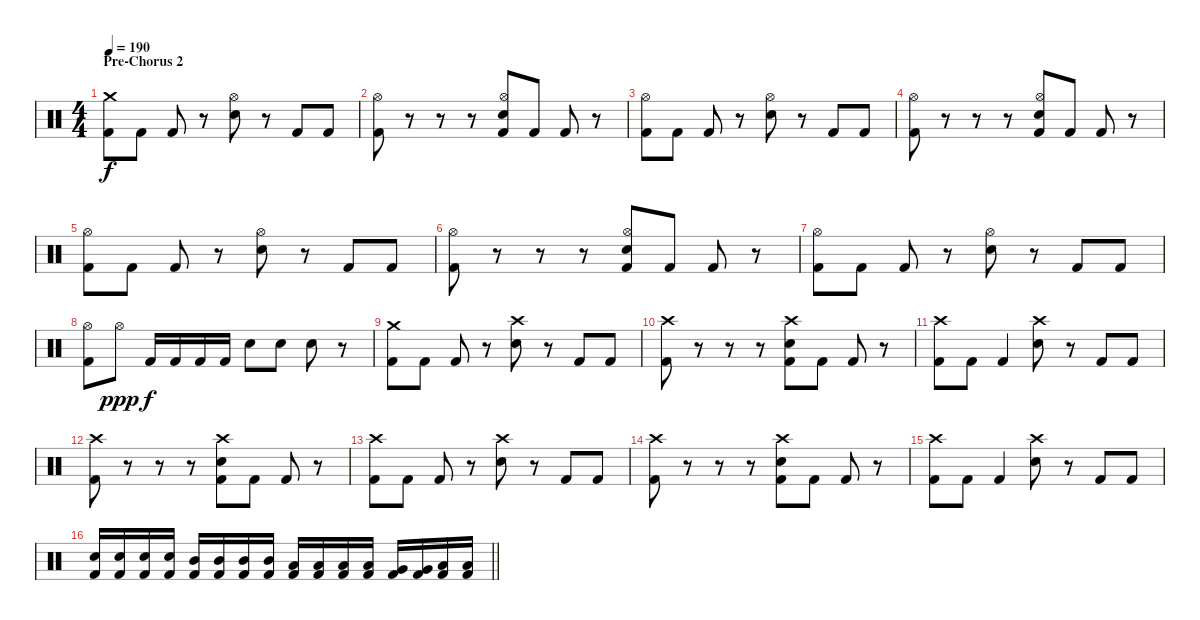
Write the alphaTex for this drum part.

\track "" {instrument percussion}
\staff {score}
\articulation defaults
\ts (4 4)
\section ("" "Pre-Chorus 2")
\tempo 190
\clef neutral
\ks c
("Crash medium (hit)" "Kick (hit) 2").8{dy f} "Kick (hit) 2".8 "Kick (hit) 2".8 r.8 ("Hi-Hat (open)" "Electric Snare (hit)").8 r.8 "Kick (hit) 2".8 "Kick (hit) 2".8 |
("Hi-Hat (open)" "Kick (hit) 2").8 r.8 r.8 r.8 ("Hi-Hat (open)" "Electric Snare (hit)" "Kick (hit) 2").8 "Kick (hit) 2".8 "Kick (hit) 2".8 r.8 |
("Hi-Hat (open)" "Kick (hit) 2").8 "Kick (hit) 2".8 "Kick (hit) 2".8 r.8 ("Hi-Hat (open)" "Electric Snare (hit)").8 r.8 "Kick (hit) 2".8 "Kick (hit) 2".8 |
("Hi-Hat (open)" "Kick (hit) 2").8 r.8 r.8 r.8 ("Hi-Hat (open)" "Electric Snare (hit)" "Kick (hit) 2").8 "Kick (hit) 2".8 "Kick (hit) 2".8 r.8 |
("Hi-Hat (open)" "Kick (hit) 2").8 "Kick (hit) 2".8 "Kick (hit) 2".8 r.8 ("Hi-Hat (open)" "Electric Snare (hit)").8 r.8 "Kick (hit) 2".8 "Kick (hit) 2".8 |
("Hi-Hat (open)" "Kick (hit) 2").8 r.8 r.8 r.8 ("Hi-Hat (open)" "Electric Snare (hit)" "Kick (hit) 2").8 "Kick (hit) 2".8 "Kick (hit) 2".8 r.8 |
("Hi-Hat (open)" "Kick (hit) 2").8 "Kick (hit) 2".8 "Kick (hit) 2".8 r.8 ("Hi-Hat (open)" "Electric Snare (hit)").8 r.8 "Kick (hit) 2".8 "Kick (hit) 2".8 |
("Hi-Hat (open)" "Kick (hit) 2").8 "Hi-Hat (open)".8{dy ppp volume 0} "Kick (hit) 2".16{dy f volume 16} "Kick (hit) 2".16 "Kick (hit) 2".16 "Kick (hit) 2".16 "Electric Snare (hit)".8 "Electric Snare (hit)".8 "Electric Snare (hit)".8 r.8 |
("Crash medium (hit)" "Kick (hit) 2").8 "Kick (hit) 2".8 "Kick (hit) 2".8 r.8 ("Crash high (hit)" "Electric Snare (hit)").8 r.8 "Kick (hit) 2".8 "Kick (hit) 2".8 |
("Crash high (hit)" "Kick (hit) 2").8 r.8 r.8 r.8 ("Crash high (hit)" "Electric Snare (hit)" "Kick (hit) 2").8 "Kick (hit) 2".8 "Kick (hit) 2".8 r.8 |
("Crash high (hit)" "Kick (hit) 2").8 "Kick (hit) 2".8 "Kick (hit) 2".4 ("Crash high (hit)" "Electric Snare (hit)").8 r.8 "Kick (hit) 2".8 "Kick (hit) 2".8 |
("Crash high (hit)" "Kick (hit) 2").8 r.8 r.8 r.8 ("Crash high (hit)" "Electric Snare (hit)" "Kick (hit) 2").8 "Kick (hit) 2".8 "Kick (hit) 2".8 r.8 |
("Crash high (hit)" "Kick (hit) 2").8 "Kick (hit) 2".8 "Kick (hit) 2".8 r.8 ("Crash high (hit)" "Electric Snare (hit)").8 r.8 "Kick (hit) 2".8 "Kick (hit) 2".8 |
("Crash high (hit)" "Kick (hit) 2").8 r.8 r.8 r.8 ("Crash high (hit)" "Electric Snare (hit)" "Kick (hit) 2").8 "Kick (hit) 2".8 "Kick (hit) 2".8 r.8 |
("Crash high (hit)" "Kick (hit) 2").8 "Kick (hit) 2".8 "Kick (hit) 2".4 ("Crash high (hit)" "Electric Snare (hit)").8 r.8 "Kick (hit) 2".8 "Kick (hit) 2".8 |
\barLineRight lightlight
("Electric Snare (hit)" "Kick (hit) 2").16 ("Electric Snare (hit)" "Kick (hit) 2").16 ("Electric Snare (hit)" "Kick (hit) 2").16 ("Electric Snare (hit)" "Kick (hit) 2").16 ("Mid Tom (hit)" "Kick (hit) 2").16 ("Mid Tom (hit)" "Kick (hit) 2").16 ("Mid Tom (hit)" "Kick (hit) 2").16 ("Mid Tom (hit)" "Kick (hit) 2").16 ("Low Tom (hit)" "Kick (hit) 2").16 ("Low Tom (hit)" "Kick (hit) 2").16 ("Low Tom (hit)" "Kick (hit) 2").16 ("Low Tom (hit)" "Kick (hit) 2").16 ("Very Low Tom (hit)" "Kick (hit) 2").16 ("Very Low Tom (hit)" "Kick (hit) 2").16 ("Low Floor Tom (hit)" "Kick (hit) 2").16 ("Low Floor Tom (hit)" "Kick (hit) 2").16
